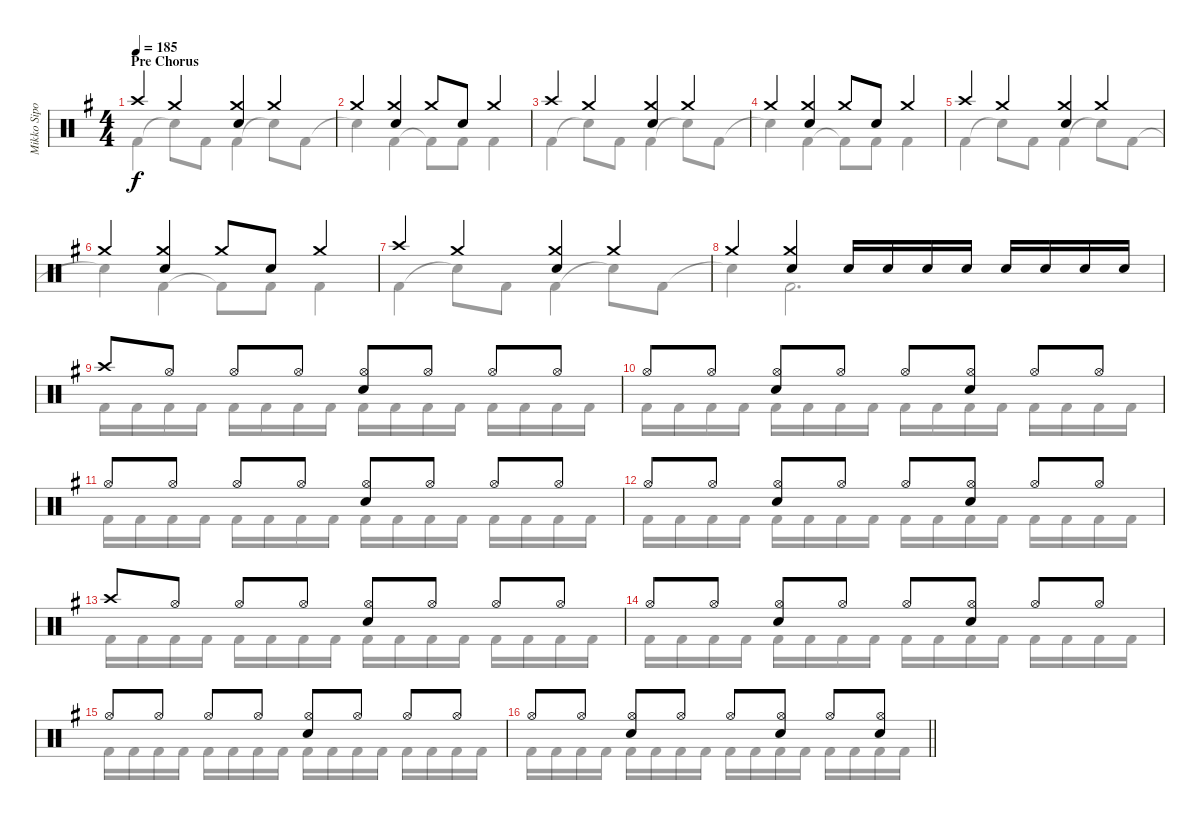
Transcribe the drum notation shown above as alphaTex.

\track ("Mikko Sipola (drums)" "Mikko Sipo") {instrument percussion}
\staff {score}
\articulation defaults
\voice
\ts (4 4)
\section ("" "Pre Chorus")
\tempo 185
\clef neutral
\ks eminor "Crash high (hit)".4{dy f} "Crash medium (hit)".4
("Crash medium (hit)" "Electric Snare (hit)").4 "Crash medium (hit)".4 |
"Crash medium (hit)".4 ("Crash medium (hit)" "Electric Snare (hit)").4 "Crash medium (hit)".8 "Electric Snare (hit)".8 "Crash medium (hit)".4 |
"Crash high (hit)".4 "Crash medium (hit)".4 ("Crash medium (hit)" "Electric Snare (hit)").4 "Crash medium (hit)".4 |
"Crash medium (hit)".4 ("Crash medium (hit)" "Electric Snare (hit)").4 "Crash medium (hit)".8 "Electric Snare (hit)".8 "Crash medium (hit)".4 |
"Crash high (hit)".4 "Crash medium (hit)".4 ("Crash medium (hit)" "Electric Snare (hit)").4 "Crash medium (hit)".4 |
"Crash medium (hit)".4 ("Crash medium (hit)" "Electric Snare (hit)").4 "Crash medium (hit)".8 "Electric Snare (hit)".8 "Crash medium (hit)".4 |
"Crash high (hit)".4 "Crash medium (hit)".4 ("Crash medium (hit)" "Electric Snare (hit)").4 "Crash medium (hit)".4 |
"Crash medium (hit)".4 ("Crash medium (hit)" "Electric Snare (hit)").4 "Electric Snare (hit)".16 "Electric Snare (hit)".16 "Electric Snare (hit)".16 "Electric Snare (hit)".16 "Electric Snare (hit)".16 "Electric Snare (hit)".16 "Electric Snare (hit)".16 "Electric Snare (hit)".16 |
"Crash high (hit)".8 "Hi-Hat (open)".8 "Hi-Hat (open)".8 "Hi-Hat (open)".8 ("Hi-Hat (open)" "Electric Snare (hit)").8 "Hi-Hat (open)".8 "Hi-Hat (open)".8 "Hi-Hat (open)".8 |
"Hi-Hat (open)".8 "Hi-Hat (open)".8 ("Hi-Hat (open)" "Electric Snare (hit)").8 "Hi-Hat (open)".8 "Hi-Hat (open)".8 ("Hi-Hat (open)" "Electric Snare (hit)").8 "Hi-Hat (open)".8 "Hi-Hat (open)".8 |
"Hi-Hat (open)".8 "Hi-Hat (open)".8 "Hi-Hat (open)".8 "Hi-Hat (open)".8 ("Hi-Hat (open)" "Electric Snare (hit)").8 "Hi-Hat (open)".8 "Hi-Hat (open)".8 "Hi-Hat (open)".8 |
"Hi-Hat (open)".8 "Hi-Hat (open)".8 ("Hi-Hat (open)" "Electric Snare (hit)").8 "Hi-Hat (open)".8 "Hi-Hat (open)".8 ("Hi-Hat (open)" "Electric Snare (hit)").8 "Hi-Hat (open)".8 "Hi-Hat (open)".8 |
"Crash high (hit)".8 "Hi-Hat (open)".8 "Hi-Hat (open)".8 "Hi-Hat (open)".8 ("Hi-Hat (open)" "Electric Snare (hit)").8 "Hi-Hat (open)".8 "Hi-Hat (open)".8 "Hi-Hat (open)".8 |
"Hi-Hat (open)".8 "Hi-Hat (open)".8 ("Hi-Hat (open)" "Electric Snare (hit)").8 "Hi-Hat (open)".8 "Hi-Hat (open)".8 ("Hi-Hat (open)" "Electric Snare (hit)").8 "Hi-Hat (open)".8 "Hi-Hat (open)".8 |
"Hi-Hat (open)".8 "Hi-Hat (open)".8 "Hi-Hat (open)".8 "Hi-Hat (open)".8 ("Hi-Hat (open)" "Electric Snare (hit)").8 "Hi-Hat (open)".8 "Hi-Hat (open)".8 "Hi-Hat (open)".8 |
\barLineRight lightlight "Hi-Hat (open)".8 "Hi-Hat (open)".8
("Hi-Hat (open)" "Electric Snare (hit)").8 "Hi-Hat (open)".8 "Hi-Hat (open)".8 ("Hi-Hat (open)" "Electric Snare (hit)").8 "Hi-Hat (open)".8 ("Hi-Hat (open)" "Electric Snare (hit)").8
\voice
\clef neutral
\ottava regular
\simile none
\ks eminor "Kick (hit) 2".4{dy f} "Snare (hit)"{t}.8 "Kick (hit) 2".8 "Kick (hit) 2".4 "Snare (hit)"{t}.8 "Kick (hit) 2".8
|
"Snare (hit)"{t}.4 "Kick (hit) 2".4 "Kick (hit) 2"{t}.8 "Kick (hit) 2".8 "Kick (hit) 2".4 |
"Kick (hit) 2".4 "Snare (hit)"{t}.8 "Kick (hit) 2".8 "Kick (hit) 2".4 "Snare (hit)"{t}.8 "Kick (hit) 2".8 |
"Snare (hit)"{t}.4 "Kick (hit) 2".4 "Kick (hit) 2"{t}.8 "Kick (hit) 2".8 "Kick (hit) 2".4 |
"Kick (hit) 2".4 "Snare (hit)"{t}.8 "Kick (hit) 2".8 "Kick (hit) 2".4 "Snare (hit)"{t}.8 "Kick (hit) 2".8 |
"Snare (hit)"{t}.4 "Kick (hit) 2".4 "Kick (hit) 2"{t}.8 "Kick (hit) 2".8 "Kick (hit) 2".4 |
"Kick (hit) 2".4 "Snare (hit)"{t}.8 "Kick (hit) 2".8 "Kick (hit) 2".4 "Snare (hit)"{t}.8 "Kick (hit) 2".8 |
"Snare (hit)"{t}.4 "Kick (hit) 2".2{d} |
"Kick (hit) 2".16 "Kick (hit) 2".16 "Kick (hit) 2".16 "Kick (hit) 2".16 "Kick (hit) 2".16 "Kick (hit) 2".16 "Kick (hit) 2".16 "Kick (hit) 2".16 "Kick (hit) 2".16 "Kick (hit) 2".16 "Kick (hit) 2".16 "Kick (hit) 2".16 "Kick (hit) 2".16 "Kick (hit) 2".16 "Kick (hit) 2".16 "Kick (hit) 2".16 |
"Kick (hit) 2".16 "Kick (hit) 2".16 "Kick (hit) 2".16 "Kick (hit) 2".16 "Kick (hit) 2".16 "Kick (hit) 2".16 "Kick (hit) 2".16 "Kick (hit) 2".16 "Kick (hit) 2".16 "Kick (hit) 2".16 "Kick (hit) 2".16 "Kick (hit) 2".16 "Kick (hit) 2".16 "Kick (hit) 2".16 "Kick (hit) 2".16 "Kick (hit) 2".16 |
"Kick (hit) 2".16 "Kick (hit) 2".16 "Kick (hit) 2".16 "Kick (hit) 2".16 "Kick (hit) 2".16 "Kick (hit) 2".16 "Kick (hit) 2".16 "Kick (hit) 2".16 "Kick (hit) 2".16 "Kick (hit) 2".16 "Kick (hit) 2".16 "Kick (hit) 2".16 "Kick (hit) 2".16 "Kick (hit) 2".16 "Kick (hit) 2".16 "Kick (hit) 2".16 |
"Kick (hit) 2".16 "Kick (hit) 2".16 "Kick (hit) 2".16 "Kick (hit) 2".16 "Kick (hit) 2".16 "Kick (hit) 2".16 "Kick (hit) 2".16 "Kick (hit) 2".16 "Kick (hit) 2".16 "Kick (hit) 2".16 "Kick (hit) 2".16 "Kick (hit) 2".16 "Kick (hit) 2".16 "Kick (hit) 2".16 "Kick (hit) 2".16 "Kick (hit) 2".16 |
"Kick (hit) 2".16 "Kick (hit) 2".16 "Kick (hit) 2".16 "Kick (hit) 2".16 "Kick (hit) 2".16 "Kick (hit) 2".16 "Kick (hit) 2".16 "Kick (hit) 2".16 "Kick (hit) 2".16 "Kick (hit) 2".16 "Kick (hit) 2".16 "Kick (hit) 2".16 "Kick (hit) 2".16 "Kick (hit) 2".16 "Kick (hit) 2".16 "Kick (hit) 2".16 |
"Kick (hit) 2".16 "Kick (hit) 2".16 "Kick (hit) 2".16 "Kick (hit) 2".16 "Kick (hit) 2".16 "Kick (hit) 2".16 "Kick (hit) 2".16 "Kick (hit) 2".16 "Kick (hit) 2".16 "Kick (hit) 2".16 "Kick (hit) 2".16 "Kick (hit) 2".16 "Kick (hit) 2".16 "Kick (hit) 2".16 "Kick (hit) 2".16 "Kick (hit) 2".16 |
"Kick (hit) 2".16 "Kick (hit) 2".16 "Kick (hit) 2".16 "Kick (hit) 2".16 "Kick (hit) 2".16 "Kick (hit) 2".16 "Kick (hit) 2".16 "Kick (hit) 2".16 "Kick (hit) 2".16 "Kick (hit) 2".16 "Kick (hit) 2".16 "Kick (hit) 2".16 "Kick (hit) 2".16 "Kick (hit) 2".16 "Kick (hit) 2".16 "Kick (hit) 2".16 |
\barLineRight lightlight "Kick (hit) 2".16 "Kick (hit) 2".16 "Kick (hit) 2".16 "Kick (hit) 2".16 "Kick (hit) 2".16 "Kick (hit) 2".16 "Kick (hit) 2".16 "Kick (hit) 2".16 "Kick (hit) 2".16 "Kick (hit) 2".16 "Kick (hit) 2".16 "Kick (hit) 2".16 "Kick (hit) 2".16 "Kick (hit) 2".16 "Kick (hit) 2".16 "Kick (hit) 2".16
